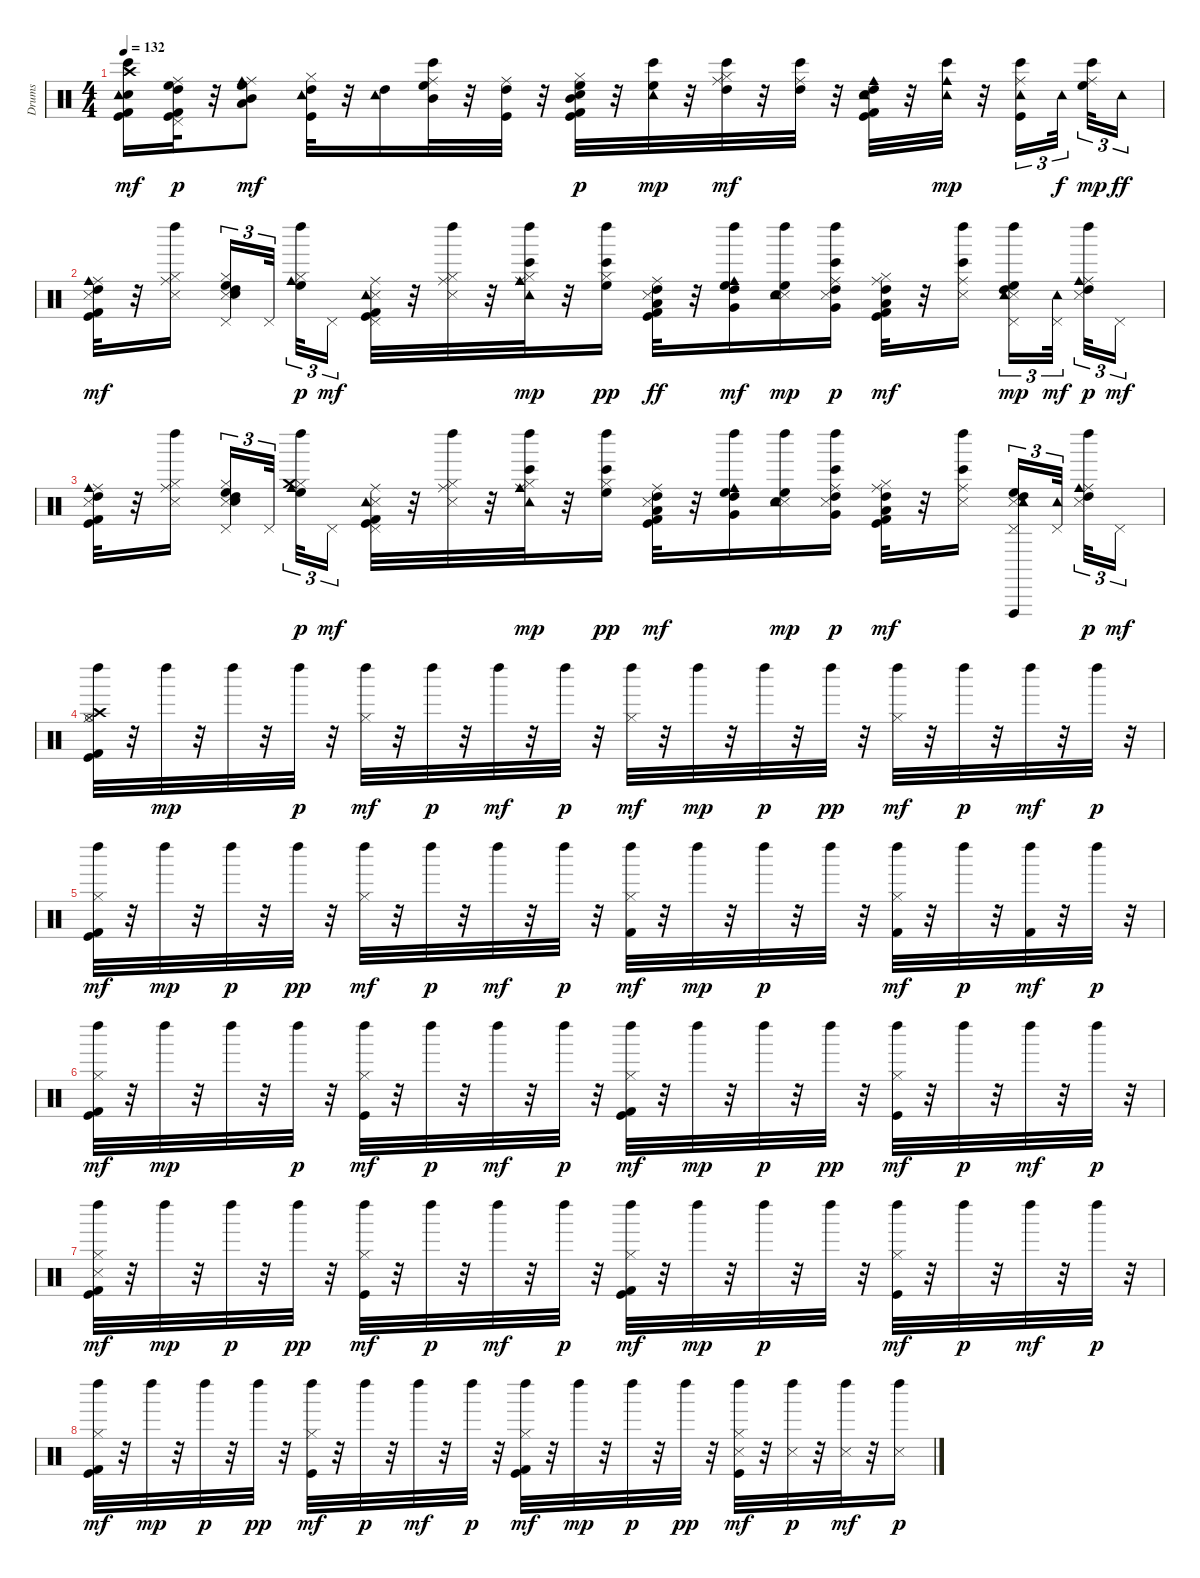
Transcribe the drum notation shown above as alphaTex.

\track ("Drums" "Drums") {instrument percussion}
\staff {score}
\articulation defaults
\ts (4 4)
\tempo 132
\clef neutral
\ks c
("Kick (hit)" "Kick (hit) 2" "Hand Clap (hit)" "Crash high (hit)" "Tambourine (hit)" "Bongo High (hit)").16{dy mf} ("Kick (hit)" "Kick (hit) 2" "Pedal Hi-Hat (hit)" "High Tom (hit)" "High Floor Tom (hit)" "Ride (middle)").32{dy p} r.32 ("Low Tom (hit)" "Mid Tom (hit)" "High Floor Tom (hit)" "Ride (middle)" "Cowbell medium (hit)").8{dy mf} ("Kick (hit)" "Hi-Hat (closed)" "High Tom (hit)" "Tambourine (hit)").32 r.32 ("High Tom (hit)" "Tambourine (hit)").16 ("Mid Tom (hit)" "High Floor Tom (hit)" "Ride (middle)" "Bongo High (hit)").32 r.32 ("Kick (hit)" "High Tom (hit)" "Ride (middle)").32 r.32 ("Kick (hit)" "Kick (hit) 2" "Hand Clap (hit)" "Hi-Hat (closed)" "Mid Tom (hit)" "High Floor Tom (hit)").32{dy p} r.32 ("High Floor Tom (hit)" "Tambourine (hit)" "Bongo High (hit)").32{dy mp} r.32 ("Hi-Hat (closed)" "High Tom (hit)" "Ride (middle)" "Bongo High (hit)").32{dy mf} r.32 ("High Tom (hit)" "Ride (middle)" "Bongo High (hit)").32 r.32 ("Kick (hit)" "Kick (hit) 2" "Electric Snare (hit)" "High Tom (hit)" "Tambourine (hit)" "Cowbell medium (hit)").32 r.32 ("Tambourine (hit)" "Cowbell medium (hit)" "Bongo High (hit)").32{dy mp} r.32 ("Kick (hit)" "Ride (middle)" "Tambourine (hit)" "Bongo High (hit)").16{tu (3 2)} "Tambourine (hit)".32{tu (3 2) dy f beam splitsecondary} ("High Floor Tom (hit)" "Ride (middle)" "Bongo High (hit)").32{tu (3 2) dy mp} "Tambourine (hit)".16{tu (3 2) dy ff} |
("Kick (hit)" "Kick (hit) 2" "Snare (side stick) 3" "High Tom (hit)" "Ride (middle)" "Cowbell medium (hit)").32{dy mf} r.32 ("Snare (side stick) 3" "Hi-Hat (closed)" "Ride (middle)" "Left Maraca (hit)").16{beam splitsecondary} ("Snare (side stick) 3" "Hand Clap (hit)" "Hi-Hat (closed)" "Pedal Hi-Hat (hit)" "High Tom (hit)" "High Floor Tom (hit)").16{tu (3 2)} "Pedal Hi-Hat (hit)".32{tu (3 2) beam splitsecondary} ("Hi-Hat (closed)" "High Floor Tom (hit)" "Cowbell medium (hit)" "Left Maraca (hit)").32{tu (3 2) dy p} "Pedal Hi-Hat (hit)".16{tu (3 2) dy mf} ("Kick (hit)" "Kick (hit) 2" "Snare (side stick) 3" "Pedal Hi-Hat (hit)" "Ride (middle)" "Tambourine (hit)").32 r.32 ("Snare (side stick) 3" "Hi-Hat (closed)" "Ride (middle)" "Left Maraca (hit)").32 r.32 ("Hi-Hat (closed)" "Ride (middle)" "Tambourine (hit)" "Cowbell medium (hit)" "Bongo High (hit)" "Left Maraca (hit)").32{dy mp} r.32 ("Hi-Hat (closed)" "High Floor Tom (hit)" "Bongo High (hit)" "Left Maraca (hit)").16{dy pp} ("Kick (hit)" "Kick (hit) 2" "Snare (side stick) 3" "Low Tom (hit)" "High Tom (hit)" "Ride (middle)").32{dy ff} r.32 ("Very Low Tom (hit)" "High Tom (hit)" "High Floor Tom (hit)" "Cowbell medium (hit)" "Left Maraca (hit)").16{dy mf} ("Snare (side stick) 3" "Hand Clap (hit)" "High Floor Tom (hit)" "Tambourine (hit)" "Left Maraca (hit)").16{dy mp} ("Snare (side stick) 3" "Very Low Tom (hit)" "High Tom (hit)" "Ride (middle)" "Bongo High (hit)" "Left Maraca (hit)").16{dy p} ("Kick (hit)" "Kick (hit) 2" "Hi-Hat (closed)" "Low Tom (hit)" "High Tom (hit)" "Ride (middle)").32{dy mf} r.32 ("Snare (side stick) 3" "Ride (middle)" "Bongo High (hit)" "Left Maraca (hit)").16{beam splitsecondary} ("Snare (side stick) 3" "Pedal Hi-Hat (hit)" "High Tom (hit)" "High Floor Tom (hit)" "Tambourine (hit)" "Left Maraca (hit)").16{tu (3 2) dy mp} ("Pedal Hi-Hat (hit)" "Tambourine (hit)").32{tu (3 2) dy mf beam splitsecondary} ("Snare (side stick) 3" "High Tom (hit)" "Ride (middle)" "Cowbell medium (hit)" "Left Maraca (hit)").32{tu (3 2) dy p} "Pedal Hi-Hat (hit)".16{tu (3 2) dy mf} |
("Kick (hit)" "Kick (hit) 2" "Snare (side stick) 3" "High Tom (hit)" "Ride (middle)" "Cowbell medium (hit)").32 r.32 ("Snare (side stick) 3" "Hi-Hat (closed)" "Ride (middle)" "Left Maraca (hit)").16{beam splitsecondary} ("Snare (side stick) 3" "Hand Clap (hit)" "Hi-Hat (closed)" "Pedal Hi-Hat (hit)" "High Tom (hit)" "High Floor Tom (hit)").16{tu (3 2)} "Pedal Hi-Hat (hit)".32{tu (3 2) beam splitsecondary} ("Hi-Hat (closed)" "High Floor Tom (hit)" "Cowbell medium (hit)" "Crash medium (hit)" "Left Maraca (hit)").32{tu (3 2) dy p} "Pedal Hi-Hat (hit)".16{tu (3 2) dy mf} ("Kick (hit)" "Kick (hit) 2" "Snare (side stick) 3" "Pedal Hi-Hat (hit)" "Ride (middle)" "Tambourine (hit)").32 r.32 ("Snare (side stick) 3" "Hi-Hat (closed)" "Ride (middle)" "Left Maraca (hit)").32 r.32 ("Hi-Hat (closed)" "Ride (middle)" "Tambourine (hit)" "Cowbell medium (hit)" "Bongo High (hit)" "Left Maraca (hit)").32{dy mp} r.32 ("Hi-Hat (closed)" "High Floor Tom (hit)" "Bongo High (hit)" "Left Maraca (hit)").16{dy pp} ("Kick (hit)" "Kick (hit) 2" "Snare (side stick) 3" "Low Tom (hit)" "High Tom (hit)" "Ride (middle)").32{dy mf} r.32 ("Very Low Tom (hit)" "High Tom (hit)" "High Floor Tom (hit)" "Cowbell medium (hit)" "Left Maraca (hit)").16 ("Snare (side stick) 3" "Hand Clap (hit)" "High Floor Tom (hit)" "Tambourine (hit)" "Left Maraca (hit)").16{dy mp} ("Snare (side stick) 3" "Very Low Tom (hit)" "High Tom (hit)" "Ride (middle)" "Bongo High (hit)" "Left Maraca (hit)").16{dy p} ("Kick (hit)" "Kick (hit) 2" "Hi-Hat (closed)" "Low Tom (hit)" "High Tom (hit)" "Ride (middle)").32{dy mf} r.32 ("Snare (side stick) 3" "Ride (middle)" "Bongo High (hit)" "Left Maraca (hit)").16{beam splitsecondary} ("Snare (side stick) 3" "Pedal Hi-Hat (hit)" "High Tom (hit)" "High Floor Tom (hit)" "Tambourine (hit)" "Vibraslap (hit)").16{tu (3 2)} ("Pedal Hi-Hat (hit)" "Tambourine (hit)").32{tu (3 2) beam splitsecondary} ("Snare (side stick) 3" "High Tom (hit)" "Ride (middle)" "Cowbell medium (hit)" "Left Maraca (hit)").32{tu (3 2) dy p} "Pedal Hi-Hat (hit)".16{tu (3 2) dy mf} |
("Kick (hit)" "Kick (hit) 2" "Hi-Hat (closed)" "Hi-Hat (open)" "Crash high (hit)" "Left Maraca (hit)").32 r.32 "Left Maraca (hit)".32{dy mp} r.32 "Left Maraca (hit)".32 r.32 "Left Maraca (hit)".32{dy p} r.32 ("Hi-Hat (closed)" "Left Maraca (hit)").32{dy mf} r.32 "Left Maraca (hit)".32{dy p} r.32 "Left Maraca (hit)".32{dy mf} r.32 "Left Maraca (hit)".32{dy p} r.32 ("Hi-Hat (closed)" "Left Maraca (hit)").32{dy mf} r.32 "Left Maraca (hit)".32{dy mp} r.32 "Left Maraca (hit)".32{dy p} r.32 "Left Maraca (hit)".32{dy pp} r.32 ("Hi-Hat (closed)" "Left Maraca (hit)").32{dy mf} r.32 "Left Maraca (hit)".32{dy p} r.32 "Left Maraca (hit)".32{dy mf} r.32 "Left Maraca (hit)".32{dy p} r.32 |
("Kick (hit)" "Kick (hit) 2" "Hi-Hat (closed)" "Left Maraca (hit)").32{dy mf} r.32 "Left Maraca (hit)".32{dy mp} r.32 "Left Maraca (hit)".32{dy p} r.32 "Left Maraca (hit)".32{dy pp} r.32 ("Hi-Hat (closed)" "Left Maraca (hit)").32{dy mf} r.32 "Left Maraca (hit)".32{dy p} r.32 "Left Maraca (hit)".32{dy mf} r.32 "Left Maraca (hit)".32{dy p} r.32 ("Kick (hit) 2" "Hi-Hat (closed)" "Left Maraca (hit)").32{dy mf} r.32 "Left Maraca (hit)".32{dy mp} r.32 "Left Maraca (hit)".32{dy p} r.32 "Left Maraca (hit)".32 r.32 ("Kick (hit) 2" "Hi-Hat (closed)" "Left Maraca (hit)").32{dy mf} r.32 "Left Maraca (hit)".32{dy p} r.32 ("Kick (hit) 2" "Left Maraca (hit)").32{dy mf} r.32 "Left Maraca (hit)".32{dy p} r.32 |
("Kick (hit)" "Kick (hit) 2" "Hi-Hat (closed)" "Left Maraca (hit)").32{dy mf} r.32 "Left Maraca (hit)".32{dy mp} r.32 "Left Maraca (hit)".32 r.32 "Left Maraca (hit)".32{dy p} r.32 ("Kick (hit)" "Hi-Hat (closed)" "Left Maraca (hit)").32{dy mf} r.32 "Left Maraca (hit)".32{dy p} r.32 "Left Maraca (hit)".32{dy mf} r.32 "Left Maraca (hit)".32{dy p} r.32 ("Kick (hit)" "Kick (hit) 2" "Hi-Hat (closed)" "Left Maraca (hit)").32{dy mf} r.32 "Left Maraca (hit)".32{dy mp} r.32 "Left Maraca (hit)".32{dy p} r.32 "Left Maraca (hit)".32{dy pp} r.32 ("Kick (hit)" "Hi-Hat (closed)" "Left Maraca (hit)").32{dy mf} r.32 "Left Maraca (hit)".32{dy p} r.32 "Left Maraca (hit)".32{dy mf} r.32 "Left Maraca (hit)".32{dy p} r.32 |
("Kick (hit)" "Kick (hit) 2" "Snare (side stick) 3" "Hi-Hat (closed)" "Left Maraca (hit)").32{dy mf} r.32 "Left Maraca (hit)".32{dy mp} r.32 "Left Maraca (hit)".32{dy p} r.32 "Left Maraca (hit)".32{dy pp} r.32 ("Kick (hit)" "Hi-Hat (closed)" "Left Maraca (hit)").32{dy mf} r.32 "Left Maraca (hit)".32{dy p} r.32 "Left Maraca (hit)".32{dy mf} r.32 "Left Maraca (hit)".32{dy p} r.32 ("Kick (hit)" "Kick (hit) 2" "Hi-Hat (closed)" "Left Maraca (hit)").32{dy mf} r.32 "Left Maraca (hit)".32{dy mp} r.32 "Left Maraca (hit)".32{dy p} r.32 "Left Maraca (hit)".32 r.32 ("Kick (hit)" "Hi-Hat (closed)" "Left Maraca (hit)").32{dy mf} r.32 "Left Maraca (hit)".32{dy p} r.32 "Left Maraca (hit)".32{dy mf} r.32 "Left Maraca (hit)".32{dy p} r.32 |
("Kick (hit)" "Kick (hit) 2" "Hi-Hat (closed)" "Left Maraca (hit)").32{dy mf} r.32 "Left Maraca (hit)".32{dy mp} r.32 "Left Maraca (hit)".32{dy p} r.32 "Left Maraca (hit)".32{dy pp} r.32 ("Kick (hit)" "Hi-Hat (closed)" "Left Maraca (hit)").32{dy mf} r.32 "Left Maraca (hit)".32{dy p} r.32 "Left Maraca (hit)".32{dy mf} r.32 "Left Maraca (hit)".32{dy p} r.32 ("Kick (hit)" "Kick (hit) 2" "Hi-Hat (closed)" "Left Maraca (hit)").32{dy mf} r.32 "Left Maraca (hit)".32{dy mp} r.32 "Left Maraca (hit)".32{dy p} r.32 "Left Maraca (hit)".32{dy pp} r.32 ("Kick (hit)" "Snare (side stick) 3" "Hi-Hat (closed)" "Left Maraca (hit)").32{dy mf} r.32 ("Snare (side stick) 3" "Left Maraca (hit)").32{dy p} r.32 ("Snare (side stick) 3" "Left Maraca (hit)").32{dy mf} r.32 ("Snare (side stick) 3" "Left Maraca (hit)").16{dy p}
